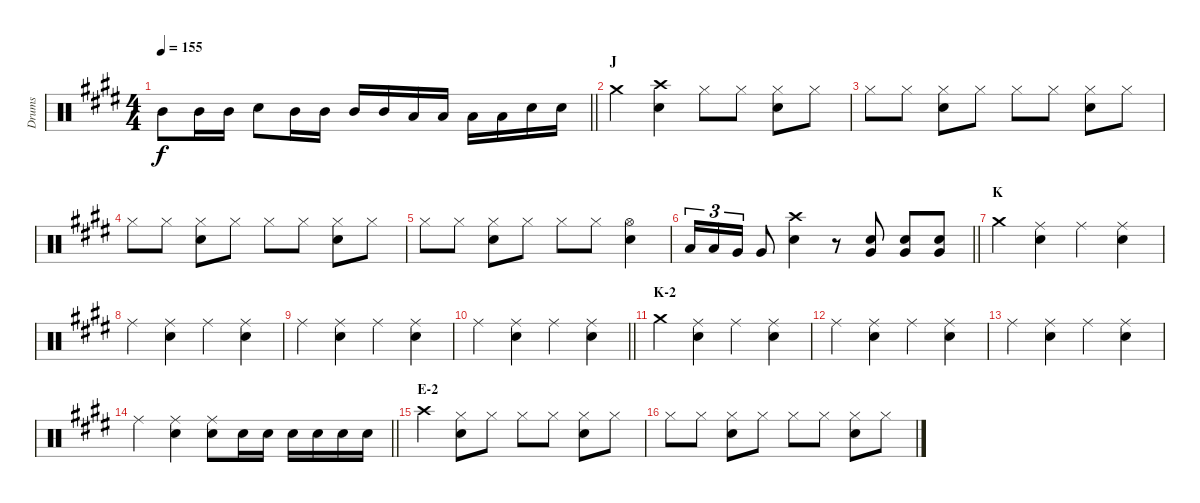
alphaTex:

\track ("Drums" "Drums") {instrument percussion}
\staff {score}
\articulation defaults
\ts (4 4)
\tempo 155
\clef neutral
\barLineRight lightlight
\ks e "Mid Tom (hit)".8{dy f} "Mid Tom (hit)".16 "Mid Tom (hit)".16 "Snare (hit) 2".8 "Mid Tom (hit)".16 "Mid Tom (hit)".16 "Mid Tom (hit)".16 "Mid Tom (hit)".16 "Low Tom (hit)".16 "Low Tom (hit)".16 "Low Tom (hit)".16 "Low Tom (hit)".16 "Snare (hit) 2".16 "Snare (hit) 2".16
|
\section ("" "J")
"Crash medium (hit)".4 ("Crash high (hit)" "Snare (hit) 2").4 "Hi-Hat (closed)".8 "Hi-Hat (closed)".8 ("Hi-Hat (closed)" "Snare (hit) 2").8 "Hi-Hat (closed)".8 |
"Hi-Hat (closed)".8 "Hi-Hat (closed)".8 ("Hi-Hat (closed)" "Snare (hit) 2").8 "Hi-Hat (closed)".8 "Hi-Hat (closed)".8 "Hi-Hat (closed)".8 ("Hi-Hat (closed)" "Snare (hit) 2").8 "Hi-Hat (closed)".8 |
"Hi-Hat (closed)".8 "Hi-Hat (closed)".8 ("Hi-Hat (closed)" "Snare (hit) 2").8 "Hi-Hat (closed)".8 "Hi-Hat (closed)".8 "Hi-Hat (closed)".8 ("Hi-Hat (closed)" "Snare (hit) 2").8 "Hi-Hat (closed)".8 |
"Hi-Hat (closed)".8 "Hi-Hat (closed)".8 ("Hi-Hat (closed)" "Snare (hit) 2").8 "Hi-Hat (closed)".8 "Hi-Hat (closed)".8 "Hi-Hat (closed)".8 ("Hi-Hat (open)" "Snare (hit) 2").4 |
\barLineRight lightlight "Low Tom (hit)".16{tu (3 2)} "Low Tom (hit)".16{tu (3 2)} "Very Low Tom (hit)".16{tu (3 2)} "Very Low Tom (hit)".8
("Crash high (hit)" "Snare (hit) 2").4 r.8 ("Snare (hit) 2" "Very Low Tom (hit)").8 ("Snare (hit) 2" "Very Low Tom (hit)").8 ("Snare (hit) 2" "Very Low Tom (hit)").8 |
\section ("" "K")
"Crash medium (hit)".4 ("Ride (middle)" "Snare (hit) 2").4 "Ride (middle)".4 ("Ride (middle)" "Snare (hit) 2").4 |
"Ride (middle)".4 ("Ride (middle)" "Snare (hit) 2").4 "Ride (middle)".4 ("Ride (middle)" "Snare (hit) 2").4 |
"Ride (middle)".4 ("Ride (middle)" "Snare (hit) 2").4 "Ride (middle)".4 ("Ride (middle)" "Snare (hit) 2").4 |
\barLineRight lightlight "Ride (middle)".4
("Ride (middle)" "Snare (hit) 2").4 "Ride (middle)".4 ("Ride (middle)" "Snare (hit) 2").4 |
\section ("" "K-2")
"Crash medium (hit)".4 ("Ride (middle)" "Snare (hit) 2").4 "Ride (middle)".4 ("Ride (middle)" "Snare (hit) 2").4 |
"Ride (middle)".4 ("Ride (middle)" "Snare (hit) 2").4 "Ride (middle)".4 ("Ride (middle)" "Snare (hit) 2").4 |
"Ride (middle)".4 ("Ride (middle)" "Snare (hit) 2").4 "Ride (middle)".4 ("Ride (middle)" "Snare (hit) 2").4 |
\barLineRight lightlight "Ride (middle)".4
("Ride (middle)" "Snare (hit) 2").4 ("Ride (middle)" "Snare (hit) 2").8 "Snare (hit) 2".16 "Snare (hit) 2".16 "Snare (hit) 2".16 "Snare (hit) 2".16 "Snare (hit) 2".16 "Snare (hit) 2".16 |
\section ("" "E-2")
"Crash high (hit)".4 ("Hi-Hat (closed)" "Snare (hit) 2").8 "Hi-Hat (closed)".8 "Hi-Hat (closed)".8 "Hi-Hat (closed)".8 ("Hi-Hat (closed)" "Snare (hit) 2").8 "Hi-Hat (closed)".8 |
"Hi-Hat (closed)".8 "Hi-Hat (closed)".8 ("Hi-Hat (closed)" "Snare (hit) 2").8 "Hi-Hat (closed)".8 "Hi-Hat (closed)".8 "Hi-Hat (closed)".8 ("Hi-Hat (closed)" "Snare (hit) 2").8 "Hi-Hat (closed)".8
